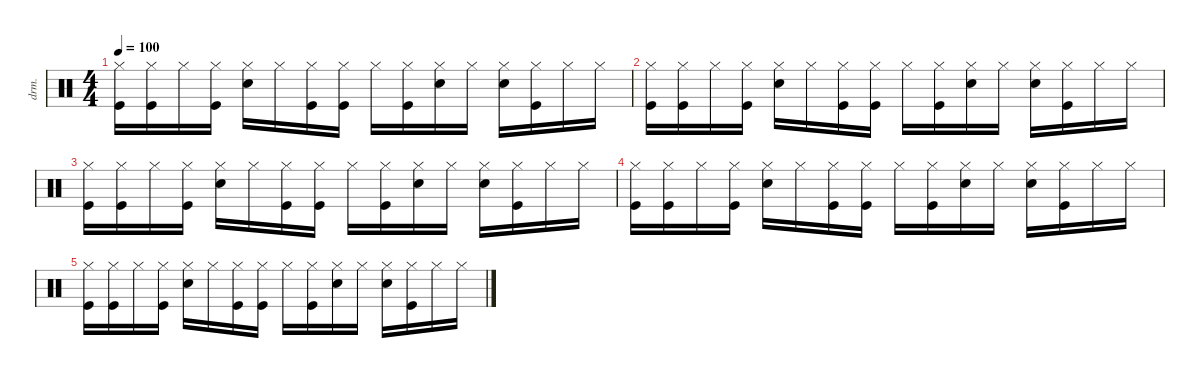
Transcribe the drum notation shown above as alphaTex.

\defaultSystemsLayout 4
\hideDynamics
\bracketExtendMode nobrackets
\otherSystemsTrackNameOrientation horizontal
\track ("Drumkit" "drm.") {instrument percussion}
\staff {score}
\articulation defaults
\ts (4 4)
\tempo 100
\clef neutral
\ks c
("Kick (hit)" "Hi-Hat (closed)").16{dy mf beam Down} ("Kick (hit)" "Hi-Hat (closed)").16{beam Down} "Hi-Hat (closed)".16{beam Down} ("Kick (hit)" "Hi-Hat (closed)").16{beam Down} ("Snare (hit) 2" "Hi-Hat (closed)").16{beam Down} "Hi-Hat (closed)".16{beam Down} ("Hi-Hat (closed)" "Kick (hit)").16{beam Down} ("Hi-Hat (closed)" "Kick (hit)").16{beam Down} "Hi-Hat (closed)".16{beam Down} ("Hi-Hat (closed)" "Kick (hit)").16{beam Down} ("Hi-Hat (closed)" "Snare (hit) 2").16{beam Down} "Hi-Hat (closed)".16{beam Down} ("Hi-Hat (closed)" "Snare (hit) 2").16{beam Down} ("Hi-Hat (closed)" "Kick (hit)").16{beam Down} "Hi-Hat (closed)".16{beam Down} "Hi-Hat (closed)".16{beam Down} |
("Kick (hit)" "Hi-Hat (closed)").16{beam Down} ("Kick (hit)" "Hi-Hat (closed)").16{beam Down} "Hi-Hat (closed)".16{beam Down} ("Kick (hit)" "Hi-Hat (closed)").16{beam Down} ("Snare (hit) 2" "Hi-Hat (closed)").16{beam Down} "Hi-Hat (closed)".16{beam Down} ("Hi-Hat (closed)" "Kick (hit)").16{beam Down} ("Hi-Hat (closed)" "Kick (hit)").16{beam Down} "Hi-Hat (closed)".16{beam Down} ("Hi-Hat (closed)" "Kick (hit)").16{beam Down} ("Hi-Hat (closed)" "Snare (hit) 2").16{beam Down} "Hi-Hat (closed)".16{beam Down} ("Hi-Hat (closed)" "Snare (hit) 2").16{beam Down} ("Hi-Hat (closed)" "Kick (hit)").16{beam Down} "Hi-Hat (closed)".16{beam Down} "Hi-Hat (closed)".16{beam Down} |
("Kick (hit)" "Hi-Hat (closed)").16{beam Down} ("Kick (hit)" "Hi-Hat (closed)").16{beam Down} "Hi-Hat (closed)".16{beam Down} ("Kick (hit)" "Hi-Hat (closed)").16{beam Down} ("Snare (hit) 2" "Hi-Hat (closed)").16{beam Down} "Hi-Hat (closed)".16{beam Down} ("Hi-Hat (closed)" "Kick (hit)").16{beam Down} ("Hi-Hat (closed)" "Kick (hit)").16{beam Down} "Hi-Hat (closed)".16{beam Down} ("Hi-Hat (closed)" "Kick (hit)").16{beam Down} ("Hi-Hat (closed)" "Snare (hit) 2").16{beam Down} "Hi-Hat (closed)".16{beam Down} ("Hi-Hat (closed)" "Snare (hit) 2").16{beam Down} ("Hi-Hat (closed)" "Kick (hit)").16{beam Down} "Hi-Hat (closed)".16{beam Down} "Hi-Hat (closed)".16{beam Down} |
("Kick (hit)" "Hi-Hat (closed)").16{beam Down} ("Kick (hit)" "Hi-Hat (closed)").16{beam Down} "Hi-Hat (closed)".16{beam Down} ("Kick (hit)" "Hi-Hat (closed)").16{beam Down} ("Snare (hit) 2" "Hi-Hat (closed)").16{beam Down} "Hi-Hat (closed)".16{beam Down} ("Hi-Hat (closed)" "Kick (hit)").16{beam Down} ("Hi-Hat (closed)" "Kick (hit)").16{beam Down} "Hi-Hat (closed)".16{beam Down} ("Hi-Hat (closed)" "Kick (hit)").16{beam Down} ("Hi-Hat (closed)" "Snare (hit) 2").16{beam Down} "Hi-Hat (closed)".16{beam Down} ("Hi-Hat (closed)" "Snare (hit) 2").16{beam Down} ("Hi-Hat (closed)" "Kick (hit)").16{beam Down} "Hi-Hat (closed)".16{beam Down} "Hi-Hat (closed)".16{beam Down} |
("Kick (hit)" "Hi-Hat (closed)").16{beam Down} ("Kick (hit)" "Hi-Hat (closed)").16{beam Down} "Hi-Hat (closed)".16{beam Down} ("Kick (hit)" "Hi-Hat (closed)").16{beam Down} ("Snare (hit) 2" "Hi-Hat (closed)").16{beam Down} "Hi-Hat (closed)".16{beam Down} ("Hi-Hat (closed)" "Kick (hit)").16{beam Down} ("Hi-Hat (closed)" "Kick (hit)").16{beam Down} "Hi-Hat (closed)".16{beam Down} ("Hi-Hat (closed)" "Kick (hit)").16{beam Down} ("Hi-Hat (closed)" "Snare (hit) 2").16{beam Down} "Hi-Hat (closed)".16{beam Down} ("Hi-Hat (closed)" "Snare (hit) 2").16{beam Down} ("Hi-Hat (closed)" "Kick (hit)").16{beam Down} "Hi-Hat (closed)".16{beam Down} "Hi-Hat (closed)".16{beam Down}
